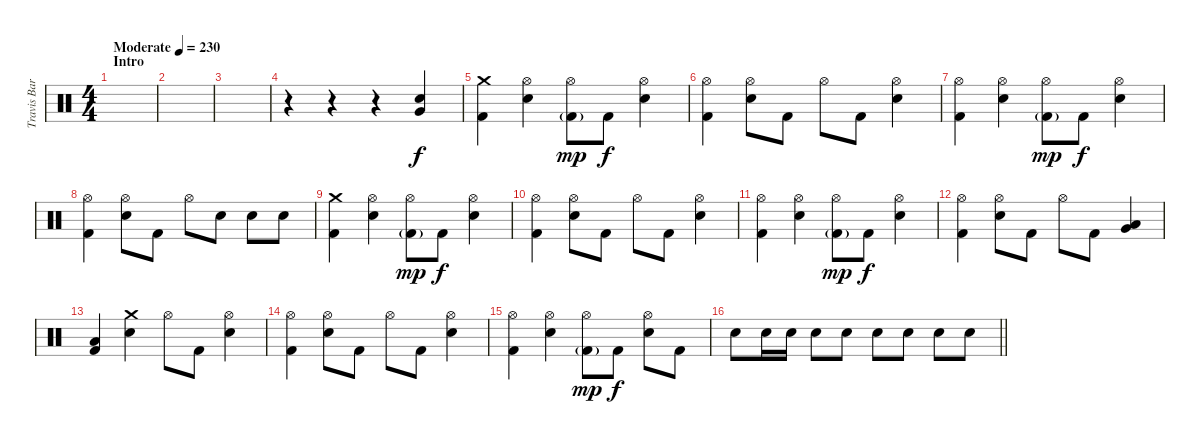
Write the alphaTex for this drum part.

\track ("Travis Barker - Drums" "Travis Bar") {instrument percussion}
\staff {score}
\articulation defaults
\ts (4 4)
\section ("" "Intro")
\tempo (230 "Moderate")
\clef neutral
\ks c
|
|
|
r.4 r.4 r.4 ("Very Low Tom (hit)" "Electric Snare (hit)").4 |
("Crash medium (hit)" "Kick (hit) 2").4 ("Hi-Hat (open)" "Electric Snare (hit)").4 ("Hi-Hat (open)" "Kick (hit) 2"{g}).8{dy mp} "Kick (hit) 2".8{dy f} ("Hi-Hat (open)" "Electric Snare (hit)").4 |
("Hi-Hat (open)" "Kick (hit) 2").4 ("Hi-Hat (open)" "Electric Snare (hit)").8 "Kick (hit) 2".8 "Hi-Hat (open)".8 "Kick (hit) 2".8 ("Hi-Hat (open)" "Electric Snare (hit)").4 |
("Hi-Hat (open)" "Kick (hit) 2").4 ("Hi-Hat (open)" "Electric Snare (hit)").4 ("Hi-Hat (open)" "Kick (hit) 2"{g}).8{dy mp} "Kick (hit) 2".8{dy f} ("Hi-Hat (open)" "Electric Snare (hit)").4 |
("Hi-Hat (open)" "Kick (hit) 2").4 ("Hi-Hat (open)" "Electric Snare (hit)").8 "Kick (hit) 2".8 "Hi-Hat (open)".8 "Electric Snare (hit)".8 "Electric Snare (hit)".8 "Electric Snare (hit)".8 |
("Crash medium (hit)" "Kick (hit) 2").4 ("Hi-Hat (open)" "Electric Snare (hit)").4 ("Hi-Hat (open)" "Kick (hit) 2"{g}).8{dy mp} "Kick (hit) 2".8{dy f} ("Hi-Hat (open)" "Electric Snare (hit)").4 |
("Hi-Hat (open)" "Kick (hit) 2").4 ("Hi-Hat (open)" "Electric Snare (hit)").8 "Kick (hit) 2".8 "Hi-Hat (open)".8 "Kick (hit) 2".8 ("Hi-Hat (open)" "Electric Snare (hit)").4 |
("Hi-Hat (open)" "Kick (hit) 2").4 ("Hi-Hat (open)" "Electric Snare (hit)").4 ("Hi-Hat (open)" "Kick (hit) 2"{g}).8{dy mp} "Kick (hit) 2".8{dy f} ("Hi-Hat (open)" "Electric Snare (hit)").4 |
("Hi-Hat (open)" "Kick (hit) 2").4 ("Hi-Hat (open)" "Electric Snare (hit)").8 "Kick (hit) 2".8 "Hi-Hat (open)".8 "Kick (hit) 2".8 ("Very Low Tom (hit)" "Low Tom (hit)").4 |
("Low Floor Tom (hit)" "Kick (hit) 2").4 ("Crash medium (hit)" "Electric Snare (hit)").4 "Hi-Hat (open)".8 "Kick (hit) 2".8 ("Hi-Hat (open)" "Electric Snare (hit)").4 |
("Hi-Hat (open)" "Kick (hit) 2").4 ("Hi-Hat (open)" "Electric Snare (hit)").8 "Kick (hit) 2".8 "Hi-Hat (open)".8 "Kick (hit) 2".8 ("Hi-Hat (open)" "Electric Snare (hit)").4 |
("Hi-Hat (open)" "Kick (hit) 2").4 ("Hi-Hat (open)" "Electric Snare (hit)").4 ("Hi-Hat (open)" "Kick (hit) 2"{g}).8{dy mp} "Kick (hit) 2".8{dy f} ("Hi-Hat (open)" "Electric Snare (hit)").8 "Kick (hit) 2".8 |
\barLineRight lightlight "Electric Snare (hit)".8 "Electric Snare (hit)".16 "Electric Snare (hit)".16 "Electric Snare (hit)".8 "Electric Snare (hit)".8 "Electric Snare (hit)".8 "Electric Snare (hit)".8 "Electric Snare (hit)".8 "Electric Snare (hit)".8
